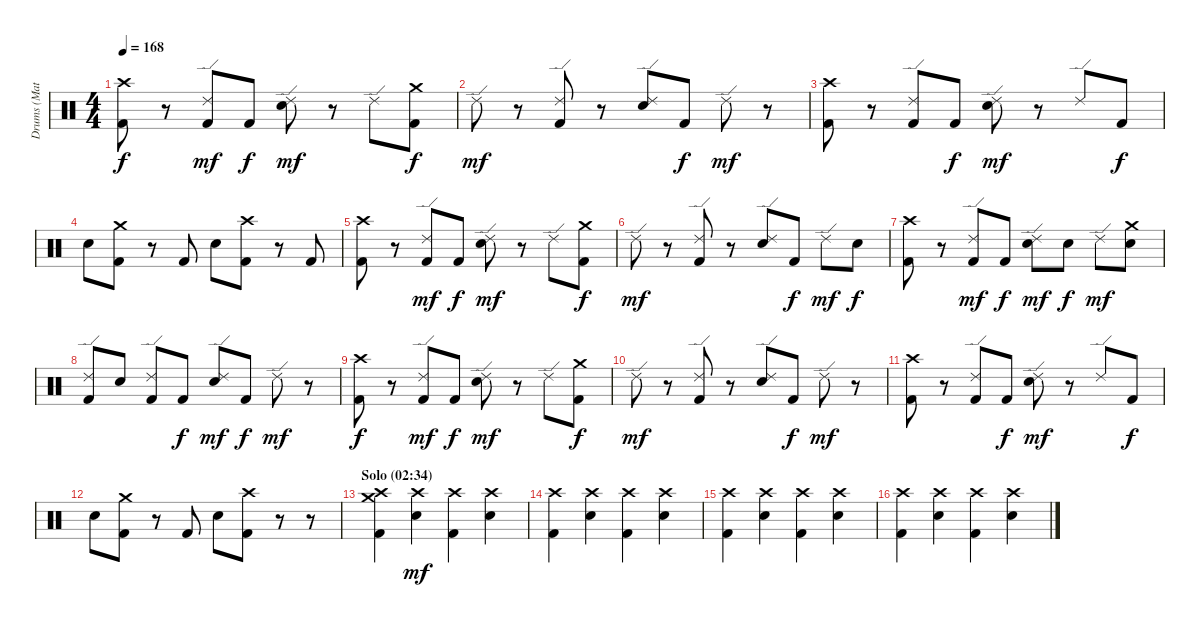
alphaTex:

\track ("Drums (Matt Sorum)" "Drums (Mat") {instrument percussion}
\staff {score}
\articulation defaults
\ts (4 4)
\tempo 168
\clef neutral
\ks c
("Crash high (hit)" "Kick (hit) 2").8{dy f} r.8 ("Ride (edge) 2" "Kick (hit) 2").8{dy mf} "Kick (hit) 2".8{dy f} ("Ride (edge) 2" "Electric Snare (hit)").8{dy mf} r.8 "Ride (edge) 2".8 ("Crash medium (hit)" "Kick (hit) 2").8{dy f} |
"Ride (edge) 2".8{dy mf} r.8 ("Ride (edge) 2" "Kick (hit) 2").8 r.8 ("Ride (edge) 2" "Electric Snare (hit)").8 "Kick (hit) 2".8{dy f} "Ride (edge) 2".8{dy mf} r.8 |
("Crash high (hit)" "Kick (hit) 2").8 r.8 ("Ride (edge) 2" "Kick (hit) 2").8 "Kick (hit) 2".8{dy f} ("Ride (edge) 2" "Electric Snare (hit)").8{dy mf} r.8 "Ride (edge) 2".8 "Kick (hit) 2".8{dy f} |
"Electric Snare (hit)".8 ("Crash medium (hit)" "Kick (hit) 2").8 r.8 "Kick (hit) 2".8 "Electric Snare (hit)".8 ("Crash high (hit)" "Kick (hit) 2").8 r.8 "Kick (hit) 2".8 |
("Crash high (hit)" "Kick (hit) 2").8 r.8 ("Ride (edge) 2" "Kick (hit) 2").8{dy mf} "Kick (hit) 2".8{dy f} ("Ride (edge) 2" "Electric Snare (hit)").8{dy mf} r.8 "Ride (edge) 2".8 ("Crash medium (hit)" "Kick (hit) 2").8{dy f} |
"Ride (edge) 2".8{dy mf} r.8 ("Ride (edge) 2" "Kick (hit) 2").8 r.8 ("Ride (edge) 2" "Electric Snare (hit)").8 "Kick (hit) 2".8{dy f} "Ride (edge) 2".8{dy mf} "Electric Snare (hit)".8{dy f} |
("Crash high (hit)" "Kick (hit) 2").8 r.8 ("Ride (edge) 2" "Kick (hit) 2").8{dy mf} "Kick (hit) 2".8{dy f} ("Ride (edge) 2" "Electric Snare (hit)").8{dy mf} "Electric Snare (hit)".8{dy f} "Ride (edge) 2".8{dy mf} ("Crash medium (hit)" "Electric Snare (hit)").8 |
("Ride (edge) 2" "Kick (hit) 2").8 "Electric Snare (hit)".8 ("Ride (edge) 2" "Kick (hit) 2").8 "Kick (hit) 2".8{dy f} ("Ride (edge) 2" "Electric Snare (hit)").8{dy mf} "Kick (hit) 2".8{dy f} "Ride (edge) 2".8{dy mf} r.8 |
("Crash high (hit)" "Kick (hit) 2").8{dy f} r.8 ("Ride (edge) 2" "Kick (hit) 2").8{dy mf} "Kick (hit) 2".8{dy f} ("Ride (edge) 2" "Electric Snare (hit)").8{dy mf} r.8 "Ride (edge) 2".8 ("Crash medium (hit)" "Kick (hit) 2").8{dy f} |
"Ride (edge) 2".8{dy mf} r.8 ("Ride (edge) 2" "Kick (hit) 2").8 r.8 ("Ride (edge) 2" "Electric Snare (hit)").8 "Kick (hit) 2".8{dy f} "Ride (edge) 2".8{dy mf} r.8 |
("Crash high (hit)" "Kick (hit) 2").8 r.8 ("Ride (edge) 2" "Kick (hit) 2").8 "Kick (hit) 2".8{dy f} ("Ride (edge) 2" "Electric Snare (hit)").8{dy mf} r.8 "Ride (edge) 2".8 "Kick (hit) 2".8{dy f} |
"Electric Snare (hit)".8 ("Crash medium (hit)" "Kick (hit) 2").8 r.8 "Kick (hit) 2".8 "Electric Snare (hit)".8 ("Crash high (hit)" "Kick (hit) 2").8 r.8 r.8 |
\section ("" "Solo (02:34)")
("Crash high (hit)" "Crash medium (hit)" "Kick (hit) 2").4 ("Crash high (hit)" "Electric Snare (hit)").4{dy mf} ("Crash high (hit)" "Kick (hit) 2").4 ("Crash high (hit)" "Electric Snare (hit)").4 |
("Crash high (hit)" "Kick (hit) 2").4 ("Crash high (hit)" "Electric Snare (hit)").4 ("Crash high (hit)" "Kick (hit) 2").4 ("Crash high (hit)" "Electric Snare (hit)").4 |
("Crash high (hit)" "Kick (hit) 2").4 ("Crash high (hit)" "Electric Snare (hit)").4 ("Crash high (hit)" "Kick (hit) 2").4 ("Crash high (hit)" "Electric Snare (hit)").4 |
("Crash high (hit)" "Kick (hit) 2").4 ("Crash high (hit)" "Electric Snare (hit)").4 ("Crash high (hit)" "Kick (hit) 2").4 ("Crash high (hit)" "Electric Snare (hit)").4
